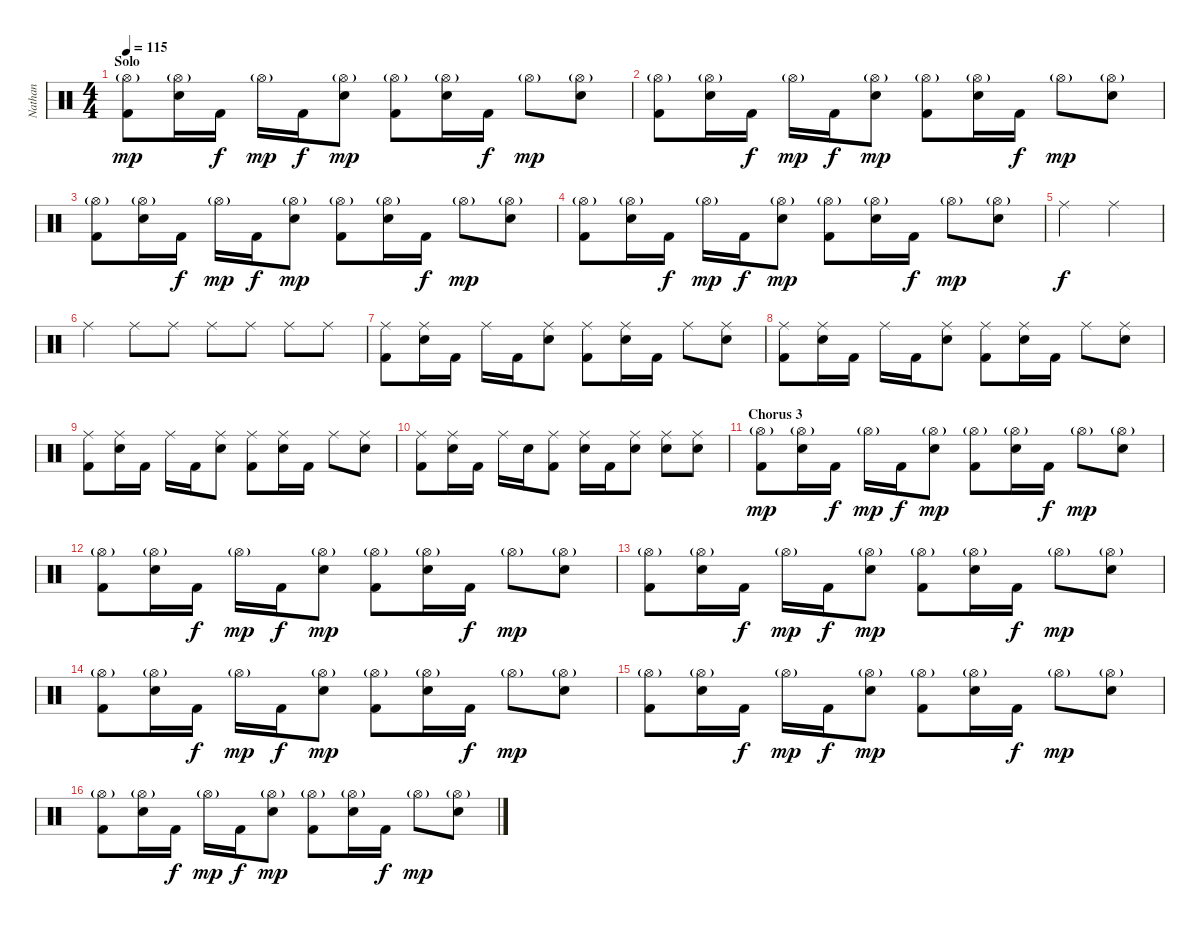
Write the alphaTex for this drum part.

\track ("Nathan" "Nathan") {instrument percussion}
\staff {score}
\articulation defaults
\ts (4 4)
\section ("" "Solo")
\tempo 115
\clef neutral
\ks c
("Hi-Hat (open)"{g} "Kick (hit) 2").8{dy mp} ("Hi-Hat (open)"{g} "Electric Snare (hit)").16 "Kick (hit) 2".16{dy f} "Hi-Hat (open)"{g}.16{dy mp} "Kick (hit) 2".16{dy f} ("Hi-Hat (open)"{g} "Electric Snare (hit)").8{dy mp} ("Hi-Hat (open)"{g} "Kick (hit) 2").8 ("Hi-Hat (open)"{g} "Electric Snare (hit)").16 "Kick (hit) 2".16{dy f} "Hi-Hat (open)"{g}.8{dy mp} ("Hi-Hat (open)"{g} "Electric Snare (hit)").8 |
("Hi-Hat (open)"{g} "Kick (hit) 2").8 ("Hi-Hat (open)"{g} "Electric Snare (hit)").16 "Kick (hit) 2".16{dy f} "Hi-Hat (open)"{g}.16{dy mp} "Kick (hit) 2".16{dy f} ("Hi-Hat (open)"{g} "Electric Snare (hit)").8{dy mp} ("Hi-Hat (open)"{g} "Kick (hit) 2").8 ("Hi-Hat (open)"{g} "Electric Snare (hit)").16 "Kick (hit) 2".16{dy f} "Hi-Hat (open)"{g}.8{dy mp} ("Hi-Hat (open)"{g} "Electric Snare (hit)").8 |
("Hi-Hat (open)"{g} "Kick (hit) 2").8 ("Hi-Hat (open)"{g} "Electric Snare (hit)").16 "Kick (hit) 2".16{dy f} "Hi-Hat (open)"{g}.16{dy mp} "Kick (hit) 2".16{dy f} ("Hi-Hat (open)"{g} "Electric Snare (hit)").8{dy mp} ("Hi-Hat (open)"{g} "Kick (hit) 2").8 ("Hi-Hat (open)"{g} "Electric Snare (hit)").16 "Kick (hit) 2".16{dy f} "Hi-Hat (open)"{g}.8{dy mp} ("Hi-Hat (open)"{g} "Electric Snare (hit)").8 |
("Hi-Hat (open)"{g} "Kick (hit) 2").8 ("Hi-Hat (open)"{g} "Electric Snare (hit)").16 "Kick (hit) 2".16{dy f} "Hi-Hat (open)"{g}.16{dy mp} "Kick (hit) 2".16{dy f} ("Hi-Hat (open)"{g} "Electric Snare (hit)").8{dy mp} ("Hi-Hat (open)"{g} "Kick (hit) 2").8 ("Hi-Hat (open)"{g} "Electric Snare (hit)").16 "Kick (hit) 2".16{dy f} "Hi-Hat (open)"{g}.8{dy mp} ("Hi-Hat (open)"{g} "Electric Snare (hit)").8 |
\section ("" "")
"Ride (middle)".2{dy f} "Ride (middle)".2 |
"Ride (middle)".4 "Ride (middle)".8 "Ride (middle)".8 "Ride (middle)".8 "Ride (middle)".8 "Ride (middle)".8 "Ride (middle)".8 |
("Ride (middle)" "Kick (hit) 2").8 ("Ride (middle)" "Electric Snare (hit)").16 "Kick (hit) 2".16 "Ride (middle)".16 "Kick (hit) 2".16 ("Ride (middle)" "Electric Snare (hit)").8 ("Ride (middle)" "Kick (hit) 2").8 ("Ride (middle)" "Electric Snare (hit)").16 "Kick (hit) 2".16 "Ride (middle)".8 ("Ride (middle)" "Electric Snare (hit)").8 |
("Ride (middle)" "Kick (hit) 2").8 ("Ride (middle)" "Electric Snare (hit)").16 "Kick (hit) 2".16 "Ride (middle)".16 "Kick (hit) 2".16 ("Ride (middle)" "Electric Snare (hit)").8 ("Ride (middle)" "Kick (hit) 2").8 ("Ride (middle)" "Electric Snare (hit)").16 "Kick (hit) 2".16 "Ride (middle)".8 ("Ride (middle)" "Electric Snare (hit)").8 |
("Ride (middle)" "Kick (hit) 2").8 ("Ride (middle)" "Electric Snare (hit)").16 "Kick (hit) 2".16 "Ride (middle)".16 "Kick (hit) 2".16 ("Ride (middle)" "Electric Snare (hit)").8 ("Ride (middle)" "Kick (hit) 2").8 ("Ride (middle)" "Electric Snare (hit)").16 "Kick (hit) 2".16 "Ride (middle)".8 ("Ride (middle)" "Electric Snare (hit)").8 |
("Ride (middle)" "Kick (hit) 2").8 ("Ride (middle)" "Electric Snare (hit)").16 "Kick (hit) 2".16 "Ride (middle)".16 "Electric Snare (hit)".16 ("Ride (middle)" "Kick (hit) 2").8 ("Ride (middle)" "Electric Snare (hit)").16 "Kick (hit) 2".16 ("Ride (middle)" "Electric Snare (hit)").8 ("Ride (middle)" "Electric Snare (hit)").8 ("Ride (middle)" "Electric Snare (hit)").8 |
\section ("" "Chorus 3")
("Hi-Hat (open)"{g} "Kick (hit) 2").8{dy mp} ("Hi-Hat (open)"{g} "Electric Snare (hit)").16 "Kick (hit) 2".16{dy f} "Hi-Hat (open)"{g}.16{dy mp} "Kick (hit) 2".16{dy f} ("Hi-Hat (open)"{g} "Electric Snare (hit)").8{dy mp} ("Hi-Hat (open)"{g} "Kick (hit) 2").8 ("Hi-Hat (open)"{g} "Electric Snare (hit)").16 "Kick (hit) 2".16{dy f} "Hi-Hat (open)"{g}.8{dy mp} ("Hi-Hat (open)"{g} "Electric Snare (hit)").8 |
("Hi-Hat (open)"{g} "Kick (hit) 2").8 ("Hi-Hat (open)"{g} "Electric Snare (hit)").16 "Kick (hit) 2".16{dy f} "Hi-Hat (open)"{g}.16{dy mp} "Kick (hit) 2".16{dy f} ("Hi-Hat (open)"{g} "Electric Snare (hit)").8{dy mp} ("Hi-Hat (open)"{g} "Kick (hit) 2").8 ("Hi-Hat (open)"{g} "Electric Snare (hit)").16 "Kick (hit) 2".16{dy f} "Hi-Hat (open)"{g}.8{dy mp} ("Hi-Hat (open)"{g} "Electric Snare (hit)").8 |
("Hi-Hat (open)"{g} "Kick (hit) 2").8 ("Hi-Hat (open)"{g} "Electric Snare (hit)").16 "Kick (hit) 2".16{dy f} "Hi-Hat (open)"{g}.16{dy mp} "Kick (hit) 2".16{dy f} ("Hi-Hat (open)"{g} "Electric Snare (hit)").8{dy mp} ("Hi-Hat (open)"{g} "Kick (hit) 2").8 ("Hi-Hat (open)"{g} "Electric Snare (hit)").16 "Kick (hit) 2".16{dy f} "Hi-Hat (open)"{g}.8{dy mp} ("Hi-Hat (open)"{g} "Electric Snare (hit)").8 |
("Hi-Hat (open)"{g} "Kick (hit) 2").8 ("Hi-Hat (open)"{g} "Electric Snare (hit)").16 "Kick (hit) 2".16{dy f} "Hi-Hat (open)"{g}.16{dy mp} "Kick (hit) 2".16{dy f} ("Hi-Hat (open)"{g} "Electric Snare (hit)").8{dy mp} ("Hi-Hat (open)"{g} "Kick (hit) 2").8 ("Hi-Hat (open)"{g} "Electric Snare (hit)").16 "Kick (hit) 2".16{dy f} "Hi-Hat (open)"{g}.8{dy mp} ("Hi-Hat (open)"{g} "Electric Snare (hit)").8 |
("Hi-Hat (open)"{g} "Kick (hit) 2").8 ("Hi-Hat (open)"{g} "Electric Snare (hit)").16 "Kick (hit) 2".16{dy f} "Hi-Hat (open)"{g}.16{dy mp} "Kick (hit) 2".16{dy f} ("Hi-Hat (open)"{g} "Electric Snare (hit)").8{dy mp} ("Hi-Hat (open)"{g} "Kick (hit) 2").8 ("Hi-Hat (open)"{g} "Electric Snare (hit)").16 "Kick (hit) 2".16{dy f} "Hi-Hat (open)"{g}.8{dy mp} ("Hi-Hat (open)"{g} "Electric Snare (hit)").8 |
("Hi-Hat (open)"{g} "Kick (hit) 2").8 ("Hi-Hat (open)"{g} "Electric Snare (hit)").16 "Kick (hit) 2".16{dy f} "Hi-Hat (open)"{g}.16{dy mp} "Kick (hit) 2".16{dy f} ("Hi-Hat (open)"{g} "Electric Snare (hit)").8{dy mp} ("Hi-Hat (open)"{g} "Kick (hit) 2").8 ("Hi-Hat (open)"{g} "Electric Snare (hit)").16 "Kick (hit) 2".16{dy f} "Hi-Hat (open)"{g}.8{dy mp} ("Hi-Hat (open)"{g} "Electric Snare (hit)").8
